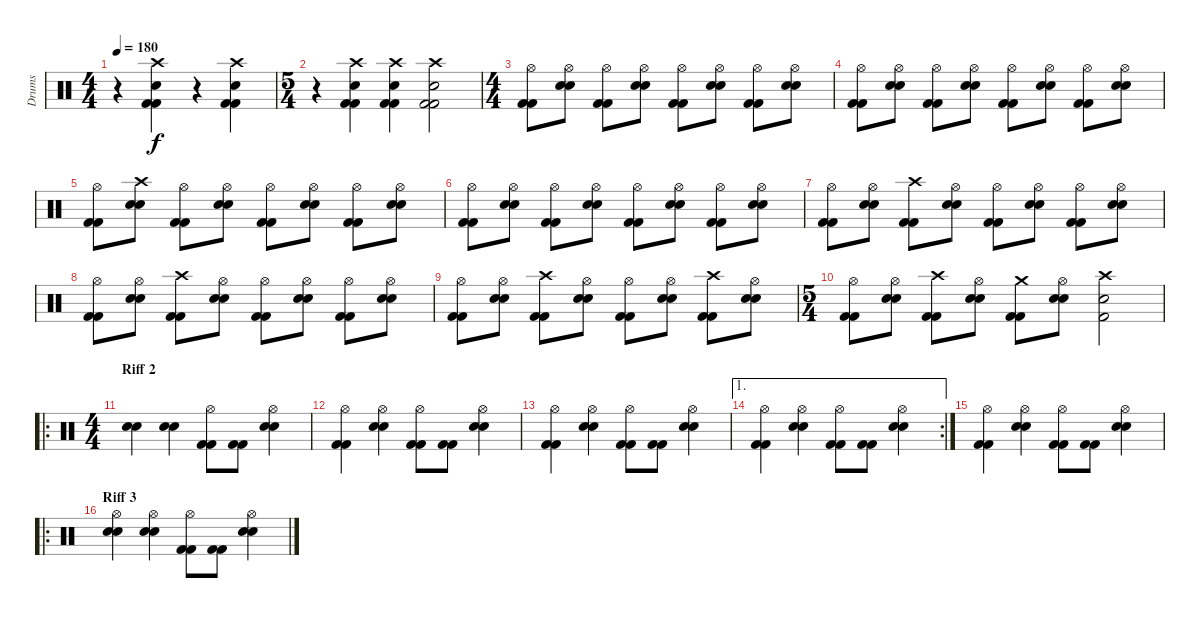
\track ("Drums" "Drums") {instrument percussion}
\staff {score}
\articulation defaults
\ts (4 4)
\tempo 180
\clef neutral
\ks c
r.4{dy f} ("Crash high (hit)" "Snare (hit) 2" "Kick (hit) 2" "Kick (hit) 2").4 r.4 ("Crash high (hit)" "Snare (hit) 2" "Kick (hit) 2" "Kick (hit) 2").4 |
\ts (5 4)
r.4 ("Crash high (hit)" "Snare (hit) 2" "Kick (hit) 2" "Kick (hit) 2").4 ("Crash high (hit)" "Snare (hit) 2" "Kick (hit) 2" "Kick (hit) 2").4 ("Crash high (hit)" "Snare (hit) 2" "Kick (hit) 2" "Kick (hit) 2").2 |
\ts (4 4)
("Hi-Hat (open)" "Kick (hit) 2" "Kick (hit) 2").8 ("Hi-Hat (open)" "Snare (hit) 2" "Snare (hit) 2").8 ("Hi-Hat (open)" "Kick (hit) 2" "Kick (hit) 2").8 ("Hi-Hat (open)" "Snare (hit) 2" "Snare (hit) 2").8 ("Hi-Hat (open)" "Kick (hit) 2" "Kick (hit) 2").8 ("Hi-Hat (open)" "Snare (hit) 2" "Snare (hit) 2").8 ("Hi-Hat (open)" "Kick (hit) 2" "Kick (hit) 2").8 ("Hi-Hat (open)" "Snare (hit) 2" "Snare (hit) 2").8 |
("Hi-Hat (open)" "Kick (hit) 2" "Kick (hit) 2").8 ("Hi-Hat (open)" "Snare (hit) 2" "Snare (hit) 2").8 ("Hi-Hat (open)" "Kick (hit) 2" "Kick (hit) 2").8 ("Hi-Hat (open)" "Snare (hit) 2" "Snare (hit) 2").8 ("Hi-Hat (open)" "Kick (hit) 2" "Kick (hit) 2").8 ("Hi-Hat (open)" "Snare (hit) 2" "Snare (hit) 2").8 ("Hi-Hat (open)" "Kick (hit) 2" "Kick (hit) 2").8 ("Hi-Hat (open)" "Snare (hit) 2" "Snare (hit) 2").8 |
("Hi-Hat (open)" "Kick (hit) 2" "Kick (hit) 2").8 ("Crash high (hit)" "Snare (hit) 2" "Snare (hit) 2").8 ("Hi-Hat (open)" "Kick (hit) 2" "Kick (hit) 2").8 ("Hi-Hat (open)" "Snare (hit) 2" "Snare (hit) 2").8 ("Hi-Hat (open)" "Kick (hit) 2" "Kick (hit) 2").8 ("Hi-Hat (open)" "Snare (hit) 2" "Snare (hit) 2").8 ("Hi-Hat (open)" "Kick (hit) 2" "Kick (hit) 2").8 ("Hi-Hat (open)" "Snare (hit) 2" "Snare (hit) 2").8 |
("Hi-Hat (open)" "Kick (hit) 2" "Kick (hit) 2").8 ("Hi-Hat (open)" "Snare (hit) 2" "Snare (hit) 2").8 ("Hi-Hat (open)" "Kick (hit) 2" "Kick (hit) 2").8 ("Hi-Hat (open)" "Snare (hit) 2" "Snare (hit) 2").8 ("Hi-Hat (open)" "Kick (hit) 2" "Kick (hit) 2").8 ("Hi-Hat (open)" "Snare (hit) 2" "Snare (hit) 2").8 ("Hi-Hat (open)" "Kick (hit) 2" "Kick (hit) 2").8 ("Hi-Hat (open)" "Snare (hit) 2" "Snare (hit) 2").8 |
("Hi-Hat (open)" "Kick (hit) 2" "Kick (hit) 2").8 ("Hi-Hat (open)" "Snare (hit) 2" "Snare (hit) 2").8 ("Crash high (hit)" "Kick (hit) 2" "Kick (hit) 2").8 ("Hi-Hat (open)" "Snare (hit) 2" "Snare (hit) 2").8 ("Hi-Hat (open)" "Kick (hit) 2" "Kick (hit) 2").8 ("Hi-Hat (open)" "Snare (hit) 2" "Snare (hit) 2").8 ("Hi-Hat (open)" "Kick (hit) 2" "Kick (hit) 2").8 ("Hi-Hat (open)" "Snare (hit) 2" "Snare (hit) 2").8 |
("Hi-Hat (open)" "Kick (hit) 2" "Kick (hit) 2").8 ("Hi-Hat (open)" "Snare (hit) 2" "Snare (hit) 2").8 ("Crash high (hit)" "Kick (hit) 2" "Kick (hit) 2").8 ("Hi-Hat (open)" "Snare (hit) 2" "Snare (hit) 2").8 ("Hi-Hat (open)" "Kick (hit) 2" "Kick (hit) 2").8 ("Hi-Hat (open)" "Snare (hit) 2" "Snare (hit) 2").8 ("Hi-Hat (open)" "Kick (hit) 2" "Kick (hit) 2").8 ("Hi-Hat (open)" "Snare (hit) 2" "Snare (hit) 2").8 |
("Hi-Hat (open)" "Kick (hit) 2" "Kick (hit) 2").8 ("Hi-Hat (open)" "Snare (hit) 2" "Snare (hit) 2").8 ("Crash high (hit)" "Kick (hit) 2" "Kick (hit) 2").8 ("Hi-Hat (open)" "Snare (hit) 2" "Snare (hit) 2").8 ("Hi-Hat (open)" "Kick (hit) 2" "Kick (hit) 2").8 ("Hi-Hat (open)" "Snare (hit) 2" "Snare (hit) 2").8 ("Crash high (hit)" "Kick (hit) 2" "Kick (hit) 2").8 ("Hi-Hat (open)" "Snare (hit) 2" "Snare (hit) 2").8 |
\ts (5 4)
("Hi-Hat (open)" "Kick (hit) 2" "Kick (hit) 2").8 ("Hi-Hat (open)" "Snare (hit) 2" "Snare (hit) 2").8 ("Crash high (hit)" "Kick (hit) 2" "Kick (hit) 2").8 ("Hi-Hat (open)" "Snare (hit) 2" "Snare (hit) 2").8 ("Crash medium (hit)" "Kick (hit) 2" "Kick (hit) 2").8 ("Hi-Hat (open)" "Snare (hit) 2" "Snare (hit) 2").8 ("Crash high (hit)" "Snare (hit) 2" "Kick (hit) 2").2 |
\ro
\ts (4 4)
\section ("" "Riff 2")
("Snare (hit) 2" "Snare (hit) 2").4 ("Snare (hit) 2" "Snare (hit) 2").4 ("Hi-Hat (open)" "Kick (hit) 2" "Kick (hit) 2").8 ("Kick (hit) 2" "Kick (hit) 2").8 ("Hi-Hat (open)" "Snare (hit) 2" "Snare (hit) 2").4 |
("Hi-Hat (open)" "Kick (hit) 2" "Kick (hit) 2").4 ("Hi-Hat (open)" "Snare (hit) 2" "Snare (hit) 2").4 ("Hi-Hat (open)" "Kick (hit) 2" "Kick (hit) 2").8 ("Kick (hit) 2" "Kick (hit) 2").8 ("Hi-Hat (open)" "Snare (hit) 2" "Snare (hit) 2").4 |
("Hi-Hat (open)" "Kick (hit) 2" "Kick (hit) 2").4 ("Hi-Hat (open)" "Snare (hit) 2" "Snare (hit) 2").4 ("Hi-Hat (open)" "Kick (hit) 2" "Kick (hit) 2").8 ("Kick (hit) 2" "Kick (hit) 2").8 ("Hi-Hat (open)" "Snare (hit) 2" "Snare (hit) 2").4 |
\ae 1
\rc 2
("Hi-Hat (open)" "Kick (hit) 2" "Kick (hit) 2").4 ("Hi-Hat (open)" "Snare (hit) 2" "Snare (hit) 2").4 ("Hi-Hat (open)" "Kick (hit) 2" "Kick (hit) 2").8 ("Kick (hit) 2" "Kick (hit) 2").8 ("Hi-Hat (open)" "Snare (hit) 2" "Snare (hit) 2").4 |
("Hi-Hat (open)" "Kick (hit) 2" "Kick (hit) 2").4 ("Hi-Hat (open)" "Snare (hit) 2" "Snare (hit) 2").4 ("Hi-Hat (open)" "Kick (hit) 2" "Kick (hit) 2").8 ("Kick (hit) 2" "Kick (hit) 2").8 ("Hi-Hat (open)" "Snare (hit) 2" "Snare (hit) 2").4 |
\ro
\section ("" "Riff 3")
("Hi-Hat (open)" "Snare (hit) 2" "Snare (hit) 2").4 ("Hi-Hat (open)" "Snare (hit) 2" "Snare (hit) 2").4 ("Hi-Hat (open)" "Kick (hit) 2" "Kick (hit) 2").8 ("Kick (hit) 2" "Kick (hit) 2").8 ("Hi-Hat (open)" "Snare (hit) 2" "Snare (hit) 2").4
